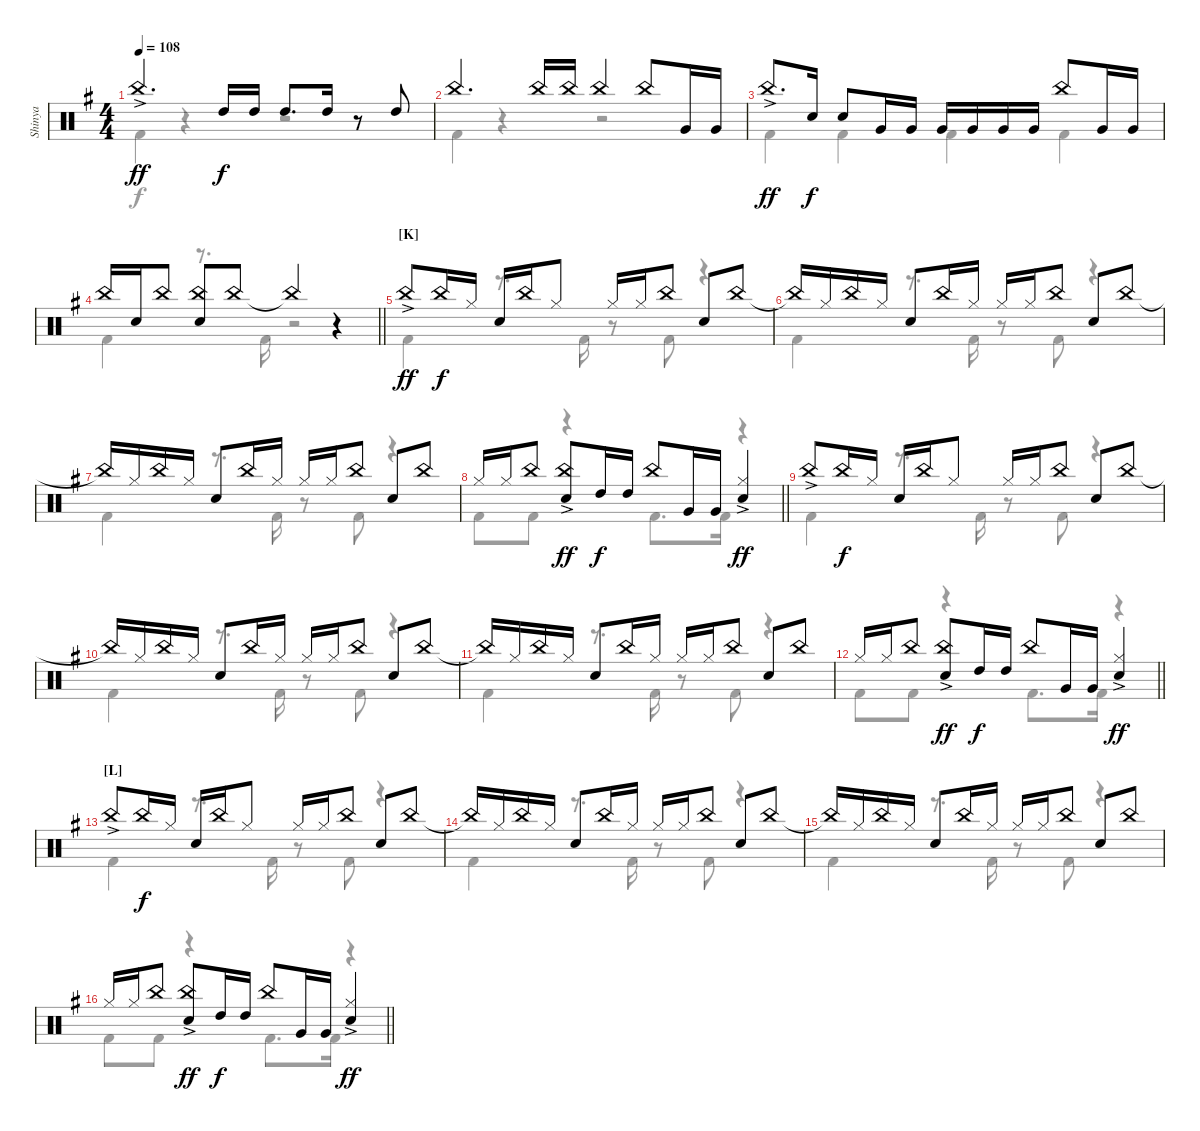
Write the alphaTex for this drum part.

\track ("Shinya" "Shinya") {instrument percussion}
\staff {score}
\articulation defaults
\voice
\ts (4 4)
\tempo 108
\clef neutral
\ks g "China (hit)"{ac}.4{d dy ff} "High Tom (hit)".16{dy f} "High Tom (hit)".16 "High Tom (hit)".8{d} "High Tom (hit)".16
r.8 "High Tom (hit)".8 |
"China (hit)".4{d} "China (hit)".16 "China (hit)".16 "China (hit)".4 "China (hit)".8 "Very Low Tom (hit)".16 "Very Low Tom (hit)".16 |
"China (hit)"{ac}.8{d dy ff} "Snare (hit) 2".16{dy f} "Snare (hit) 2".8 "Very Low Tom (hit)".16 "Very Low Tom (hit)".16 "Very Low Tom (hit)".16 "Very Low Tom (hit)".16 "Very Low Tom (hit)".16 "Very Low Tom (hit)".16 "China (hit)".8 "Very Low Tom (hit)".16 "Very Low Tom (hit)".16 |
\barLineRight lightlight "China (hit)".16 "Snare (hit) 2".16 "China (hit)".8
("China (hit)" "Snare (hit) 2").8 "China (hit)".8 "China (hit)"{t}.4 r.4 |
\section ("" "[K]")
"China (hit)"{ac}.8{dy ff} "China (hit)".16{dy f} "Hi-Hat (closed)".16 "Snare (hit) 2".16 "China (hit)".16 "Hi-Hat (closed)".8 "Hi-Hat (closed)".16 "Hi-Hat (closed)".16 "China (hit)".8 "Snare (hit) 2".8 "China (hit)".8 |
"China (hit)"{t}.16 "Hi-Hat (closed)".16 "China (hit)".16 "Hi-Hat (closed)".16 "Snare (hit) 2".8 "China (hit)".16 "Hi-Hat (closed)".16 "Hi-Hat (closed)".16 "Hi-Hat (closed)".16 "China (hit)".8 "Snare (hit) 2".8 "China (hit)".8 |
"China (hit)"{t}.16 "Hi-Hat (closed)".16 "China (hit)".16 "Hi-Hat (closed)".16 "Snare (hit) 2".8 "China (hit)".16 "Hi-Hat (closed)".16 "Hi-Hat (closed)".16 "Hi-Hat (closed)".16 "China (hit)".8 "Snare (hit) 2".8 "China (hit)".8 |
\barLineRight lightlight "Hi-Hat (closed)".16 "Hi-Hat (closed)".16 "China (hit)".8
("China (hit)"{ac} "Snare (hit) 2").8{dy ff} "High Tom (hit)".16{dy f} "High Tom (hit)".16 "China (hit)".8 "Very Low Tom (hit)".16 "Very Low Tom (hit)".16 ("Hi-Hat (closed)"{ac} "Snare (hit) 2").4{dy ff} |
"China (hit)"{ac}.8 "China (hit)".16{dy f} "Hi-Hat (closed)".16 "Snare (hit) 2".16 "China (hit)".16 "Hi-Hat (closed)".8 "Hi-Hat (closed)".16 "Hi-Hat (closed)".16 "China (hit)".8 "Snare (hit) 2".8 "China (hit)".8 |
"China (hit)"{t}.16 "Hi-Hat (closed)".16 "China (hit)".16 "Hi-Hat (closed)".16 "Snare (hit) 2".8 "China (hit)".16 "Hi-Hat (closed)".16 "Hi-Hat (closed)".16 "Hi-Hat (closed)".16 "China (hit)".8 "Snare (hit) 2".8 "China (hit)".8 |
"China (hit)"{t}.16 "Hi-Hat (closed)".16 "China (hit)".16 "Hi-Hat (closed)".16 "Snare (hit) 2".8 "China (hit)".16 "Hi-Hat (closed)".16 "Hi-Hat (closed)".16 "Hi-Hat (closed)".16 "China (hit)".8 "Snare (hit) 2".8 "China (hit)".8 |
\barLineRight lightlight "Hi-Hat (closed)".16 "Hi-Hat (closed)".16 "China (hit)".8
("China (hit)"{ac} "Snare (hit) 2").8{dy ff} "High Tom (hit)".16{dy f} "High Tom (hit)".16 "China (hit)".8 "Very Low Tom (hit)".16 "Very Low Tom (hit)".16 ("Hi-Hat (closed)"{ac} "Snare (hit) 2").4{dy ff} |
\section ("" "[L]")
"China (hit)"{ac}.8 "China (hit)".16{dy f} "Hi-Hat (closed)".16 "Snare (hit) 2".16 "China (hit)".16 "Hi-Hat (closed)".8 "Hi-Hat (closed)".16 "Hi-Hat (closed)".16 "China (hit)".8 "Snare (hit) 2".8 "China (hit)".8 |
"China (hit)"{t}.16 "Hi-Hat (closed)".16 "China (hit)".16 "Hi-Hat (closed)".16 "Snare (hit) 2".8 "China (hit)".16 "Hi-Hat (closed)".16 "Hi-Hat (closed)".16 "Hi-Hat (closed)".16 "China (hit)".8 "Snare (hit) 2".8 "China (hit)".8 |
"China (hit)"{t}.16 "Hi-Hat (closed)".16 "China (hit)".16 "Hi-Hat (closed)".16 "Snare (hit) 2".8 "China (hit)".16 "Hi-Hat (closed)".16 "Hi-Hat (closed)".16 "Hi-Hat (closed)".16 "China (hit)".8 "Snare (hit) 2".8 "China (hit)".8 |
\barLineRight lightlight "Hi-Hat (closed)".16 "Hi-Hat (closed)".16 "China (hit)".8
("China (hit)"{ac} "Snare (hit) 2").8{dy ff} "High Tom (hit)".16{dy f} "High Tom (hit)".16 "China (hit)".8 "Very Low Tom (hit)".16 "Very Low Tom (hit)".16 ("Hi-Hat (closed)"{ac} "Snare (hit) 2").4{dy ff}
\voice
\clef neutral
\ottava regular
\simile none
\ks g "Kick (hit) 2".4{dy f}
r.4 r.2 |
"Kick (hit) 2".4 r.4 r.2 |
"Kick (hit) 2".4 "Kick (hit) 2".4 "Kick (hit) 2".4 "Kick (hit) 2".4 |
\barLineRight lightlight "Kick (hit) 2".4
r.8{d} "Kick (hit) 2".16 r.2 |
"Kick (hit) 2".4 r.8{d} "Kick (hit) 2".16 r.8 "Kick (hit) 2".8 r.4 |
"Kick (hit) 2".4 r.8{d} "Kick (hit) 2".16 r.8 "Kick (hit) 2".8 r.4 |
"Kick (hit) 2".4 r.8{d} "Kick (hit) 2".16 r.8 "Kick (hit) 2".8 r.4 |
\barLineRight lightlight "Kick (hit) 2".8 "Kick (hit) 2".8
r.4 "Kick (hit) 2".8{d} "Kick (hit) 2".16 r.4 |
"Kick (hit) 2".4 r.8{d} "Kick (hit) 2".16 r.8 "Kick (hit) 2".8 r.4 |
"Kick (hit) 2".4 r.8{d} "Kick (hit) 2".16 r.8 "Kick (hit) 2".8 r.4 |
"Kick (hit) 2".4 r.8{d} "Kick (hit) 2".16 r.8 "Kick (hit) 2".8 r.4 |
\barLineRight lightlight "Kick (hit) 2".8 "Kick (hit) 2".8
r.4 "Kick (hit) 2".8{d} "Kick (hit) 2".16 r.4 |
"Kick (hit) 2".4 r.8{d} "Kick (hit) 2".16 r.8 "Kick (hit) 2".8 r.4 |
"Kick (hit) 2".4 r.8{d} "Kick (hit) 2".16 r.8 "Kick (hit) 2".8 r.4 |
"Kick (hit) 2".4 r.8{d} "Kick (hit) 2".16 r.8 "Kick (hit) 2".8 r.4 |
\barLineRight lightlight "Kick (hit) 2".8 "Kick (hit) 2".8
r.4 "Kick (hit) 2".8{d} "Kick (hit) 2".16 r.4
